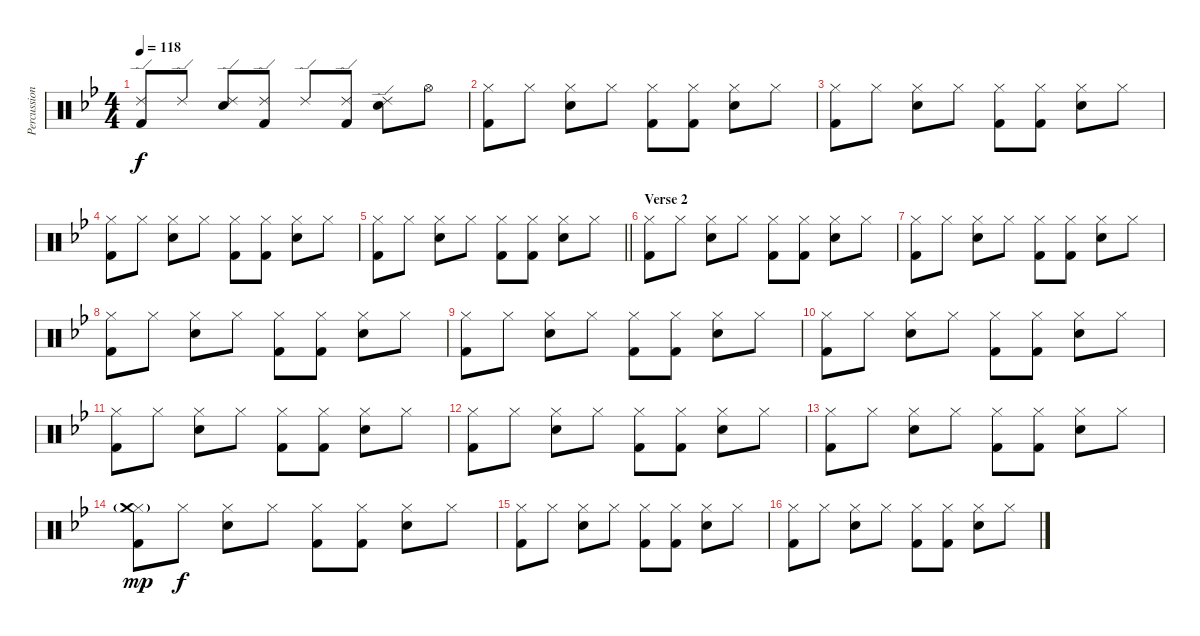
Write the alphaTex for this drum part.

\track ("Percussion" "Percussion") {instrument percussion}
\staff {score}
\articulation defaults
\ts (4 4)
\tempo 118
\clef neutral
\ks bb
("Ride (edge) 2" "Kick (hit) 2").8{dy f} "Ride (edge) 2".8 ("Ride (edge) 2" "Electric Snare (hit)").8 ("Ride (edge) 2" "Kick (hit) 2").8 "Ride (edge) 2".8 ("Ride (edge) 2" "Kick (hit) 2").8 ("Ride (edge) 2" "Electric Snare (hit)").8 "Hi-Hat (open)".8 |
("Hi-Hat (closed)" "Kick (hit) 2").8{volume 12} "Hi-Hat (closed)".8 ("Hi-Hat (closed)" "Electric Snare (hit)").8 "Hi-Hat (closed)".8 ("Hi-Hat (closed)" "Kick (hit) 2").8 ("Hi-Hat (closed)" "Kick (hit) 2").8 ("Hi-Hat (closed)" "Electric Snare (hit)").8 "Hi-Hat (closed)".8 |
("Hi-Hat (closed)" "Kick (hit) 2").8 "Hi-Hat (closed)".8 ("Hi-Hat (closed)" "Electric Snare (hit)").8 "Hi-Hat (closed)".8 ("Hi-Hat (closed)" "Kick (hit) 2").8 ("Hi-Hat (closed)" "Kick (hit) 2").8 ("Hi-Hat (closed)" "Electric Snare (hit)").8 "Hi-Hat (closed)".8 |
("Hi-Hat (closed)" "Kick (hit) 2").8 "Hi-Hat (closed)".8 ("Hi-Hat (closed)" "Electric Snare (hit)").8 "Hi-Hat (closed)".8 ("Hi-Hat (closed)" "Kick (hit) 2").8 ("Hi-Hat (closed)" "Kick (hit) 2").8 ("Hi-Hat (closed)" "Electric Snare (hit)").8 "Hi-Hat (closed)".8 |
\barLineRight lightlight
("Hi-Hat (closed)" "Kick (hit) 2").8 "Hi-Hat (closed)".8 ("Hi-Hat (closed)" "Electric Snare (hit)").8 "Hi-Hat (closed)".8 ("Hi-Hat (closed)" "Kick (hit) 2").8 ("Hi-Hat (closed)" "Kick (hit) 2").8 ("Hi-Hat (closed)" "Electric Snare (hit)").8 "Hi-Hat (closed)".8 |
\section ("" "Verse 2")
("Hi-Hat (closed)" "Kick (hit) 2").8 "Hi-Hat (closed)".8 ("Hi-Hat (closed)" "Electric Snare (hit)").8 "Hi-Hat (closed)".8 ("Hi-Hat (closed)" "Kick (hit) 2").8 ("Hi-Hat (closed)" "Kick (hit) 2").8 ("Hi-Hat (closed)" "Electric Snare (hit)").8 "Hi-Hat (closed)".8 |
("Hi-Hat (closed)" "Kick (hit) 2").8 "Hi-Hat (closed)".8 ("Hi-Hat (closed)" "Electric Snare (hit)").8 "Hi-Hat (closed)".8 ("Hi-Hat (closed)" "Kick (hit) 2").8 ("Hi-Hat (closed)" "Kick (hit) 2").8 ("Hi-Hat (closed)" "Electric Snare (hit)").8 "Hi-Hat (closed)".8 |
("Hi-Hat (closed)" "Kick (hit) 2").8 "Hi-Hat (closed)".8 ("Hi-Hat (closed)" "Electric Snare (hit)").8 "Hi-Hat (closed)".8 ("Hi-Hat (closed)" "Kick (hit) 2").8 ("Hi-Hat (closed)" "Kick (hit) 2").8 ("Hi-Hat (closed)" "Electric Snare (hit)").8 "Hi-Hat (closed)".8 |
("Hi-Hat (closed)" "Kick (hit) 2").8 "Hi-Hat (closed)".8 ("Hi-Hat (closed)" "Electric Snare (hit)").8 "Hi-Hat (closed)".8 ("Hi-Hat (closed)" "Kick (hit) 2").8 ("Hi-Hat (closed)" "Kick (hit) 2").8 ("Hi-Hat (closed)" "Electric Snare (hit)").8 "Hi-Hat (closed)".8 |
("Hi-Hat (closed)" "Kick (hit) 2").8 "Hi-Hat (closed)".8 ("Hi-Hat (closed)" "Electric Snare (hit)").8 "Hi-Hat (closed)".8 ("Hi-Hat (closed)" "Kick (hit) 2").8 ("Hi-Hat (closed)" "Kick (hit) 2").8 ("Hi-Hat (closed)" "Electric Snare (hit)").8 "Hi-Hat (closed)".8 |
("Hi-Hat (closed)" "Kick (hit) 2").8 "Hi-Hat (closed)".8 ("Hi-Hat (closed)" "Electric Snare (hit)").8 "Hi-Hat (closed)".8 ("Hi-Hat (closed)" "Kick (hit) 2").8 ("Hi-Hat (closed)" "Kick (hit) 2").8 ("Hi-Hat (closed)" "Electric Snare (hit)").8 "Hi-Hat (closed)".8 |
("Hi-Hat (closed)" "Kick (hit) 2").8 "Hi-Hat (closed)".8 ("Hi-Hat (closed)" "Electric Snare (hit)").8 "Hi-Hat (closed)".8 ("Hi-Hat (closed)" "Kick (hit) 2").8 ("Hi-Hat (closed)" "Kick (hit) 2").8 ("Hi-Hat (closed)" "Electric Snare (hit)").8 "Hi-Hat (closed)".8 |
("Hi-Hat (closed)" "Kick (hit) 2").8 "Hi-Hat (closed)".8 ("Hi-Hat (closed)" "Electric Snare (hit)").8 "Hi-Hat (closed)".8 ("Hi-Hat (closed)" "Kick (hit) 2").8 ("Hi-Hat (closed)" "Kick (hit) 2").8 ("Hi-Hat (closed)" "Electric Snare (hit)").8 "Hi-Hat (closed)".8 |
("Hi-Hat (closed)" "Crash medium (hit)"{g} "Kick (hit) 2").8{dy mp} "Hi-Hat (closed)".8{dy f} ("Hi-Hat (closed)" "Electric Snare (hit)").8 "Hi-Hat (closed)".8 ("Hi-Hat (closed)" "Kick (hit) 2").8 ("Hi-Hat (closed)" "Kick (hit) 2").8 ("Hi-Hat (closed)" "Electric Snare (hit)").8 "Hi-Hat (closed)".8 |
("Hi-Hat (closed)" "Kick (hit) 2").8 "Hi-Hat (closed)".8 ("Hi-Hat (closed)" "Electric Snare (hit)").8 "Hi-Hat (closed)".8 ("Hi-Hat (closed)" "Kick (hit) 2").8 ("Hi-Hat (closed)" "Kick (hit) 2").8 ("Hi-Hat (closed)" "Electric Snare (hit)").8 "Hi-Hat (closed)".8 |
("Hi-Hat (closed)" "Kick (hit) 2").8 "Hi-Hat (closed)".8 ("Hi-Hat (closed)" "Electric Snare (hit)").8 "Hi-Hat (closed)".8 ("Hi-Hat (closed)" "Kick (hit) 2").8 ("Hi-Hat (closed)" "Kick (hit) 2").8 ("Hi-Hat (closed)" "Electric Snare (hit)").8 "Hi-Hat (closed)".8
